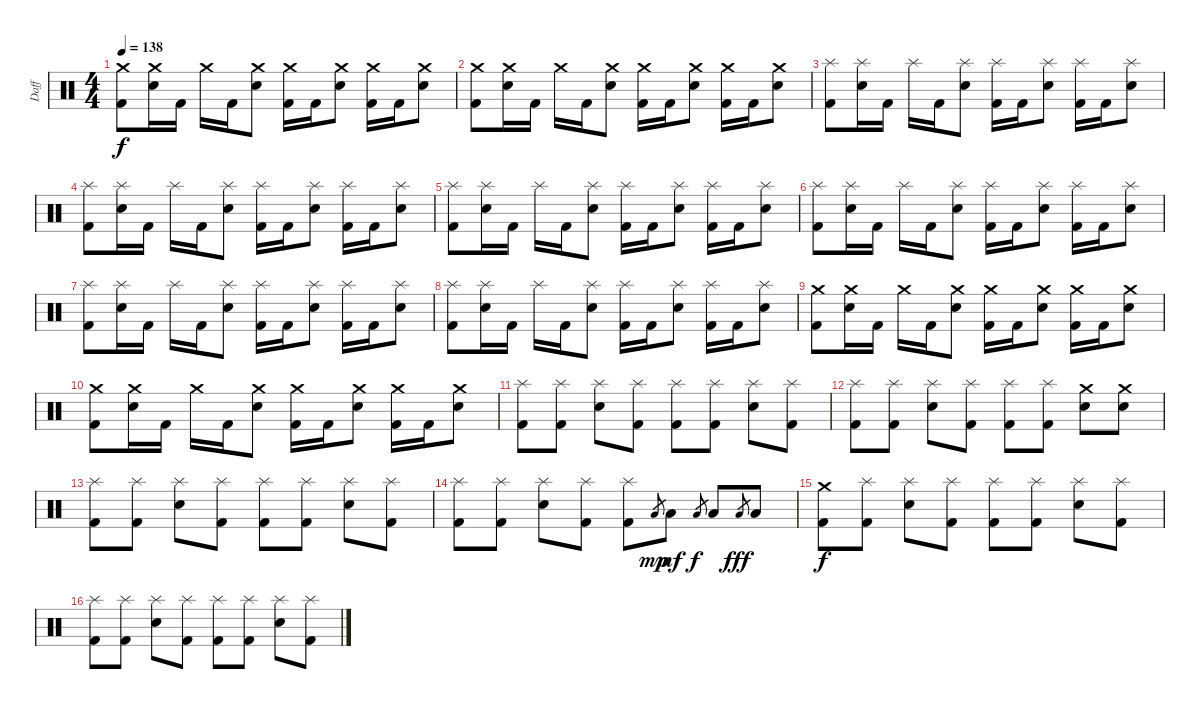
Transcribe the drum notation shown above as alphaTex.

\track ("Daff" "Daff") {instrument percussion}
\staff {score}
\articulation defaults
\ts (4 4)
\tempo 138
\clef neutral
\ks c
("Crash medium (hit)" "Kick (hit) 2").8{dy f} ("Crash medium (hit)" "Electric Snare (hit)").16 "Kick (hit) 2".16 "Crash medium (hit)".16 "Kick (hit) 2".16 ("Crash medium (hit)" "Electric Snare (hit)").8 ("Crash medium (hit)" "Kick (hit) 2").16 "Kick (hit) 2".16 ("Crash medium (hit)" "Electric Snare (hit)").8 ("Crash medium (hit)" "Kick (hit) 2").16 "Kick (hit) 2".16 ("Crash medium (hit)" "Electric Snare (hit)").8 |
("Crash medium (hit)" "Kick (hit) 2").8 ("Crash medium (hit)" "Electric Snare (hit)").16 "Kick (hit) 2".16 "Crash medium (hit)".16 "Kick (hit) 2".16 ("Crash medium (hit)" "Electric Snare (hit)").8 ("Crash medium (hit)" "Kick (hit) 2").16 "Kick (hit) 2".16 ("Crash medium (hit)" "Electric Snare (hit)").8 ("Crash medium (hit)" "Kick (hit) 2").16 "Kick (hit) 2".16 ("Crash medium (hit)" "Electric Snare (hit)").8 |
("Splash (hit)" "Kick (hit) 2").8 ("Splash (hit)" "Electric Snare (hit)").16 "Kick (hit) 2".16 "Splash (hit)".16 "Kick (hit) 2".16 ("Splash (hit)" "Electric Snare (hit)").8 ("Splash (hit)" "Kick (hit) 2").16 "Kick (hit) 2".16 ("Splash (hit)" "Electric Snare (hit)").8 ("Splash (hit)" "Kick (hit) 2").16 "Kick (hit) 2".16 ("Splash (hit)" "Electric Snare (hit)").8 |
("Splash (hit)" "Kick (hit) 2").8 ("Splash (hit)" "Electric Snare (hit)").16 "Kick (hit) 2".16 "Splash (hit)".16 "Kick (hit) 2".16 ("Splash (hit)" "Electric Snare (hit)").8 ("Splash (hit)" "Kick (hit) 2").16 "Kick (hit) 2".16 ("Splash (hit)" "Electric Snare (hit)").8 ("Splash (hit)" "Kick (hit) 2").16 "Kick (hit) 2".16 ("Splash (hit)" "Electric Snare (hit)").8 |
("Splash (hit)" "Kick (hit) 2").8 ("Splash (hit)" "Electric Snare (hit)").16 "Kick (hit) 2".16 "Splash (hit)".16 "Kick (hit) 2".16 ("Splash (hit)" "Electric Snare (hit)").8 ("Splash (hit)" "Kick (hit) 2").16 "Kick (hit) 2".16 ("Splash (hit)" "Electric Snare (hit)").8 ("Splash (hit)" "Kick (hit) 2").16 "Kick (hit) 2".16 ("Splash (hit)" "Electric Snare (hit)").8 |
("Splash (hit)" "Kick (hit) 2").8 ("Splash (hit)" "Electric Snare (hit)").16 "Kick (hit) 2".16 "Splash (hit)".16 "Kick (hit) 2".16 ("Splash (hit)" "Electric Snare (hit)").8 ("Splash (hit)" "Kick (hit) 2").16 "Kick (hit) 2".16 ("Splash (hit)" "Electric Snare (hit)").8 ("Splash (hit)" "Kick (hit) 2").16 "Kick (hit) 2".16 ("Splash (hit)" "Electric Snare (hit)").8 |
("Splash (hit)" "Kick (hit) 2").8 ("Splash (hit)" "Electric Snare (hit)").16 "Kick (hit) 2".16 "Splash (hit)".16 "Kick (hit) 2".16 ("Splash (hit)" "Electric Snare (hit)").8 ("Splash (hit)" "Kick (hit) 2").16 "Kick (hit) 2".16 ("Splash (hit)" "Electric Snare (hit)").8 ("Splash (hit)" "Kick (hit) 2").16 "Kick (hit) 2".16 ("Splash (hit)" "Electric Snare (hit)").8 |
("Splash (hit)" "Kick (hit) 2").8 ("Splash (hit)" "Electric Snare (hit)").16 "Kick (hit) 2".16 "Splash (hit)".16 "Kick (hit) 2".16 ("Splash (hit)" "Electric Snare (hit)").8 ("Splash (hit)" "Kick (hit) 2").16 "Kick (hit) 2".16 ("Splash (hit)" "Electric Snare (hit)").8 ("Splash (hit)" "Kick (hit) 2").16 "Kick (hit) 2".16 ("Splash (hit)" "Electric Snare (hit)").8 |
("Crash medium (hit)" "Kick (hit) 2").8 ("Crash medium (hit)" "Electric Snare (hit)").16 "Kick (hit) 2".16 "Crash medium (hit)".16 "Kick (hit) 2".16 ("Crash medium (hit)" "Electric Snare (hit)").8 ("Crash medium (hit)" "Kick (hit) 2").16 "Kick (hit) 2".16 ("Crash medium (hit)" "Electric Snare (hit)").8 ("Crash medium (hit)" "Kick (hit) 2").16 "Kick (hit) 2".16 ("Crash medium (hit)" "Electric Snare (hit)").8 |
("Crash medium (hit)" "Kick (hit) 2").8 ("Crash medium (hit)" "Electric Snare (hit)").16 "Kick (hit) 2".16 "Crash medium (hit)".16 "Kick (hit) 2".16 ("Crash medium (hit)" "Electric Snare (hit)").8 ("Crash medium (hit)" "Kick (hit) 2").16 "Kick (hit) 2".16 ("Crash medium (hit)" "Electric Snare (hit)").8 ("Crash medium (hit)" "Kick (hit) 2").16 "Kick (hit) 2".16 ("Crash medium (hit)" "Electric Snare (hit)").8 |
("Splash (hit)" "Kick (hit) 2").8 ("Splash (hit)" "Kick (hit) 2").8 ("Splash (hit)" "Electric Snare (hit)").8 ("Splash (hit)" "Kick (hit) 2").8 ("Splash (hit)" "Kick (hit) 2").8 ("Splash (hit)" "Kick (hit) 2").8 ("Splash (hit)" "Electric Snare (hit)").8 ("Splash (hit)" "Kick (hit) 2").8 |
("Splash (hit)" "Kick (hit) 2").8 ("Splash (hit)" "Kick (hit) 2").8 ("Splash (hit)" "Electric Snare (hit)").8 ("Splash (hit)" "Kick (hit) 2").8 ("Splash (hit)" "Kick (hit) 2").8 ("Splash (hit)" "Kick (hit) 2").8 ("Crash medium (hit)" "Electric Snare (hit)").8 ("Crash medium (hit)" "Electric Snare (hit)").8 |
("Splash (hit)" "Kick (hit) 2").8 ("Splash (hit)" "Kick (hit) 2").8 ("Splash (hit)" "Electric Snare (hit)").8 ("Splash (hit)" "Kick (hit) 2").8 ("Splash (hit)" "Kick (hit) 2").8 ("Splash (hit)" "Kick (hit) 2").8 ("Splash (hit)" "Electric Snare (hit)").8 ("Splash (hit)" "Kick (hit) 2").8 |
("Splash (hit)" "Kick (hit) 2").8 ("Splash (hit)" "Kick (hit) 2").8 ("Splash (hit)" "Electric Snare (hit)").8 ("Splash (hit)" "Kick (hit) 2").8 ("Splash (hit)" "Kick (hit) 2").8 "Low Tom (hit)".8{gr dy mp} "Low Tom (hit)".8{dy mf} "Low Tom (hit)".8{gr dy f} "Low Tom (hit)".8 "Low Tom (hit)".8{gr dy fff} "Low Tom (hit)".8 |
("Crash medium (hit)" "Kick (hit) 2").8{dy f} ("Splash (hit)" "Kick (hit) 2").8 ("Splash (hit)" "Electric Snare (hit)").8 ("Splash (hit)" "Kick (hit) 2").8 ("Splash (hit)" "Kick (hit) 2").8 ("Splash (hit)" "Kick (hit) 2").8 ("Splash (hit)" "Electric Snare (hit)").8 ("Splash (hit)" "Kick (hit) 2").8 |
("Splash (hit)" "Kick (hit) 2").8 ("Splash (hit)" "Kick (hit) 2").8 ("Splash (hit)" "Electric Snare (hit)").8 ("Splash (hit)" "Kick (hit) 2").8 ("Splash (hit)" "Kick (hit) 2").8 ("Splash (hit)" "Kick (hit) 2").8 ("Splash (hit)" "Electric Snare (hit)").8 ("Splash (hit)" "Kick (hit) 2").8
